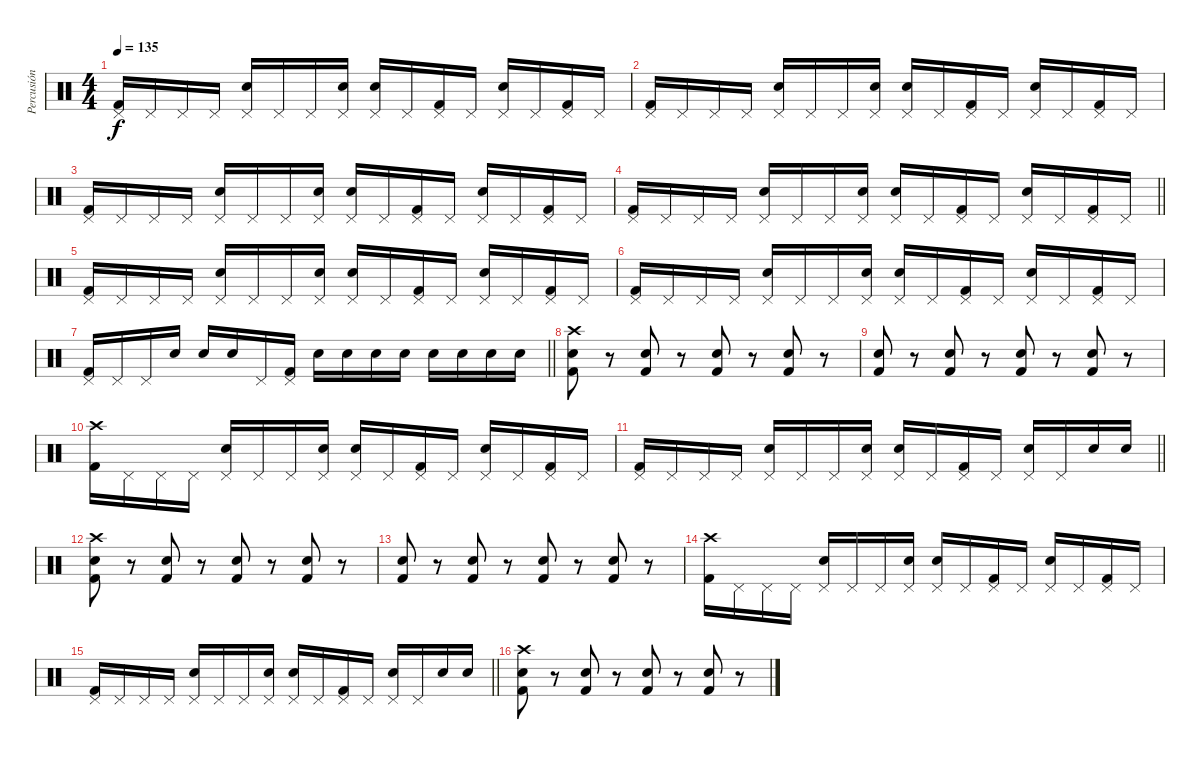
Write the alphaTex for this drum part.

\track ("Percusión" "Percusión") {instrument percussion}
\staff {score}
\articulation defaults
\ts (4 4)
\tempo 135
\clef neutral
\ks c
("Pedal Hi-Hat (hit)" "Kick (hit) 2").16{dy f} "Pedal Hi-Hat (hit)".16 "Pedal Hi-Hat (hit)".16 "Pedal Hi-Hat (hit)".16 ("Pedal Hi-Hat (hit)" "Snare (hit) 2").16 "Pedal Hi-Hat (hit)".16 "Pedal Hi-Hat (hit)".16 ("Pedal Hi-Hat (hit)" "Snare (hit) 2").16 ("Pedal Hi-Hat (hit)" "Snare (hit) 2").16 "Pedal Hi-Hat (hit)".16 ("Pedal Hi-Hat (hit)" "Kick (hit) 2").16 "Pedal Hi-Hat (hit)".16 ("Pedal Hi-Hat (hit)" "Snare (hit) 2").16 "Pedal Hi-Hat (hit)".16 ("Pedal Hi-Hat (hit)" "Kick (hit) 2").16 "Pedal Hi-Hat (hit)".16 |
("Pedal Hi-Hat (hit)" "Kick (hit) 2").16 "Pedal Hi-Hat (hit)".16 "Pedal Hi-Hat (hit)".16 "Pedal Hi-Hat (hit)".16 ("Pedal Hi-Hat (hit)" "Snare (hit) 2").16 "Pedal Hi-Hat (hit)".16 "Pedal Hi-Hat (hit)".16 ("Pedal Hi-Hat (hit)" "Snare (hit) 2").16 ("Pedal Hi-Hat (hit)" "Snare (hit) 2").16 "Pedal Hi-Hat (hit)".16 ("Pedal Hi-Hat (hit)" "Kick (hit) 2").16 "Pedal Hi-Hat (hit)".16 ("Pedal Hi-Hat (hit)" "Snare (hit) 2").16 "Pedal Hi-Hat (hit)".16 ("Pedal Hi-Hat (hit)" "Kick (hit) 2").16 "Pedal Hi-Hat (hit)".16 |
("Pedal Hi-Hat (hit)" "Kick (hit) 2").16 "Pedal Hi-Hat (hit)".16 "Pedal Hi-Hat (hit)".16 "Pedal Hi-Hat (hit)".16 ("Pedal Hi-Hat (hit)" "Snare (hit) 2").16 "Pedal Hi-Hat (hit)".16 "Pedal Hi-Hat (hit)".16 ("Pedal Hi-Hat (hit)" "Snare (hit) 2").16 ("Pedal Hi-Hat (hit)" "Snare (hit) 2").16 "Pedal Hi-Hat (hit)".16 ("Pedal Hi-Hat (hit)" "Kick (hit) 2").16 "Pedal Hi-Hat (hit)".16 ("Pedal Hi-Hat (hit)" "Snare (hit) 2").16 "Pedal Hi-Hat (hit)".16 ("Pedal Hi-Hat (hit)" "Kick (hit) 2").16 "Pedal Hi-Hat (hit)".16 |
\barLineRight lightlight
("Pedal Hi-Hat (hit)" "Kick (hit) 2").16 "Pedal Hi-Hat (hit)".16 "Pedal Hi-Hat (hit)".16 "Pedal Hi-Hat (hit)".16 ("Pedal Hi-Hat (hit)" "Snare (hit) 2").16 "Pedal Hi-Hat (hit)".16 "Pedal Hi-Hat (hit)".16 ("Pedal Hi-Hat (hit)" "Snare (hit) 2").16 ("Pedal Hi-Hat (hit)" "Snare (hit) 2").16 "Pedal Hi-Hat (hit)".16 ("Pedal Hi-Hat (hit)" "Kick (hit) 2").16 "Pedal Hi-Hat (hit)".16 ("Pedal Hi-Hat (hit)" "Snare (hit) 2").16 "Pedal Hi-Hat (hit)".16 ("Pedal Hi-Hat (hit)" "Kick (hit) 2").16 "Pedal Hi-Hat (hit)".16 |
("Pedal Hi-Hat (hit)" "Kick (hit) 2").16 "Pedal Hi-Hat (hit)".16 "Pedal Hi-Hat (hit)".16 "Pedal Hi-Hat (hit)".16 ("Pedal Hi-Hat (hit)" "Snare (hit) 2").16 "Pedal Hi-Hat (hit)".16 "Pedal Hi-Hat (hit)".16 ("Pedal Hi-Hat (hit)" "Snare (hit) 2").16 ("Pedal Hi-Hat (hit)" "Snare (hit) 2").16 "Pedal Hi-Hat (hit)".16 ("Pedal Hi-Hat (hit)" "Kick (hit) 2").16 "Pedal Hi-Hat (hit)".16 ("Pedal Hi-Hat (hit)" "Snare (hit) 2").16 "Pedal Hi-Hat (hit)".16 ("Pedal Hi-Hat (hit)" "Kick (hit) 2").16 "Pedal Hi-Hat (hit)".16 |
("Pedal Hi-Hat (hit)" "Kick (hit) 2").16 "Pedal Hi-Hat (hit)".16 "Pedal Hi-Hat (hit)".16 "Pedal Hi-Hat (hit)".16 ("Pedal Hi-Hat (hit)" "Snare (hit) 2").16 "Pedal Hi-Hat (hit)".16 "Pedal Hi-Hat (hit)".16 ("Pedal Hi-Hat (hit)" "Snare (hit) 2").16 ("Pedal Hi-Hat (hit)" "Snare (hit) 2").16 "Pedal Hi-Hat (hit)".16 ("Pedal Hi-Hat (hit)" "Kick (hit) 2").16 "Pedal Hi-Hat (hit)".16 ("Pedal Hi-Hat (hit)" "Snare (hit) 2").16 "Pedal Hi-Hat (hit)".16 ("Pedal Hi-Hat (hit)" "Kick (hit) 2").16 "Pedal Hi-Hat (hit)".16 |
\barLineRight lightlight
("Pedal Hi-Hat (hit)" "Kick (hit) 2").16 "Pedal Hi-Hat (hit)".16 "Pedal Hi-Hat (hit)".16 "Snare (hit) 2".16 "Snare (hit) 2".16 "Snare (hit) 2".16 "Pedal Hi-Hat (hit)".16 ("Pedal Hi-Hat (hit)" "Kick (hit) 2").16 "Snare (hit) 2".16 "Snare (hit) 2".16 "Snare (hit) 2".16 "Snare (hit) 2".16 "Snare (hit) 2".16 "Snare (hit) 2".16 "Snare (hit) 2".16 "Snare (hit) 2".16 |
("Crash high (hit)" "Snare (hit) 2" "Kick (hit) 2").8 r.8 ("Snare (hit) 2" "Kick (hit) 2").8 r.8 ("Snare (hit) 2" "Kick (hit) 2").8 r.8 ("Snare (hit) 2" "Kick (hit) 2").8 r.8 |
("Snare (hit) 2" "Kick (hit) 2").8 r.8 ("Snare (hit) 2" "Kick (hit) 2").8 r.8 ("Snare (hit) 2" "Kick (hit) 2").8 r.8 ("Snare (hit) 2" "Kick (hit) 2").8 r.8 |
("Crash high (hit)" "Kick (hit) 2").16 "Pedal Hi-Hat (hit)".16 "Pedal Hi-Hat (hit)".16 "Pedal Hi-Hat (hit)".16 ("Pedal Hi-Hat (hit)" "Snare (hit) 2").16 "Pedal Hi-Hat (hit)".16 "Pedal Hi-Hat (hit)".16 ("Pedal Hi-Hat (hit)" "Snare (hit) 2").16 ("Pedal Hi-Hat (hit)" "Snare (hit) 2").16 "Pedal Hi-Hat (hit)".16 ("Pedal Hi-Hat (hit)" "Kick (hit) 2").16 "Pedal Hi-Hat (hit)".16 ("Pedal Hi-Hat (hit)" "Snare (hit) 2").16 "Pedal Hi-Hat (hit)".16 ("Pedal Hi-Hat (hit)" "Kick (hit) 2").16 "Pedal Hi-Hat (hit)".16 |
\barLineRight lightlight
("Pedal Hi-Hat (hit)" "Kick (hit) 2").16 "Pedal Hi-Hat (hit)".16 "Pedal Hi-Hat (hit)".16 "Pedal Hi-Hat (hit)".16 ("Pedal Hi-Hat (hit)" "Snare (hit) 2").16 "Pedal Hi-Hat (hit)".16 "Pedal Hi-Hat (hit)".16 ("Pedal Hi-Hat (hit)" "Snare (hit) 2").16 ("Pedal Hi-Hat (hit)" "Snare (hit) 2").16 "Pedal Hi-Hat (hit)".16 ("Pedal Hi-Hat (hit)" "Kick (hit) 2").16 "Pedal Hi-Hat (hit)".16 ("Pedal Hi-Hat (hit)" "Snare (hit) 2").16 "Pedal Hi-Hat (hit)".16 "Snare (hit) 2".16 "Snare (hit) 2".16 |
("Crash high (hit)" "Snare (hit) 2" "Kick (hit) 2").8 r.8 ("Snare (hit) 2" "Kick (hit) 2").8 r.8 ("Snare (hit) 2" "Kick (hit) 2").8 r.8 ("Snare (hit) 2" "Kick (hit) 2").8 r.8 |
("Snare (hit) 2" "Kick (hit) 2").8 r.8 ("Snare (hit) 2" "Kick (hit) 2").8 r.8 ("Snare (hit) 2" "Kick (hit) 2").8 r.8 ("Snare (hit) 2" "Kick (hit) 2").8 r.8 |
("Crash high (hit)" "Kick (hit) 2").16 "Pedal Hi-Hat (hit)".16 "Pedal Hi-Hat (hit)".16 "Pedal Hi-Hat (hit)".16 ("Pedal Hi-Hat (hit)" "Snare (hit) 2").16 "Pedal Hi-Hat (hit)".16 "Pedal Hi-Hat (hit)".16 ("Pedal Hi-Hat (hit)" "Snare (hit) 2").16 ("Pedal Hi-Hat (hit)" "Snare (hit) 2").16 "Pedal Hi-Hat (hit)".16 ("Pedal Hi-Hat (hit)" "Kick (hit) 2").16 "Pedal Hi-Hat (hit)".16 ("Pedal Hi-Hat (hit)" "Snare (hit) 2").16 "Pedal Hi-Hat (hit)".16 ("Pedal Hi-Hat (hit)" "Kick (hit) 2").16 "Pedal Hi-Hat (hit)".16 |
\barLineRight lightlight
("Pedal Hi-Hat (hit)" "Kick (hit) 2").16 "Pedal Hi-Hat (hit)".16 "Pedal Hi-Hat (hit)".16 "Pedal Hi-Hat (hit)".16 ("Pedal Hi-Hat (hit)" "Snare (hit) 2").16 "Pedal Hi-Hat (hit)".16 "Pedal Hi-Hat (hit)".16 ("Pedal Hi-Hat (hit)" "Snare (hit) 2").16 ("Pedal Hi-Hat (hit)" "Snare (hit) 2").16 "Pedal Hi-Hat (hit)".16 ("Pedal Hi-Hat (hit)" "Kick (hit) 2").16 "Pedal Hi-Hat (hit)".16 ("Pedal Hi-Hat (hit)" "Snare (hit) 2").16 "Pedal Hi-Hat (hit)".16 "Snare (hit) 2".16 "Snare (hit) 2".16 |
("Crash high (hit)" "Snare (hit) 2" "Kick (hit) 2").8 r.8 ("Snare (hit) 2" "Kick (hit) 2").8 r.8 ("Snare (hit) 2" "Kick (hit) 2").8 r.8 ("Snare (hit) 2" "Kick (hit) 2").8 r.8
